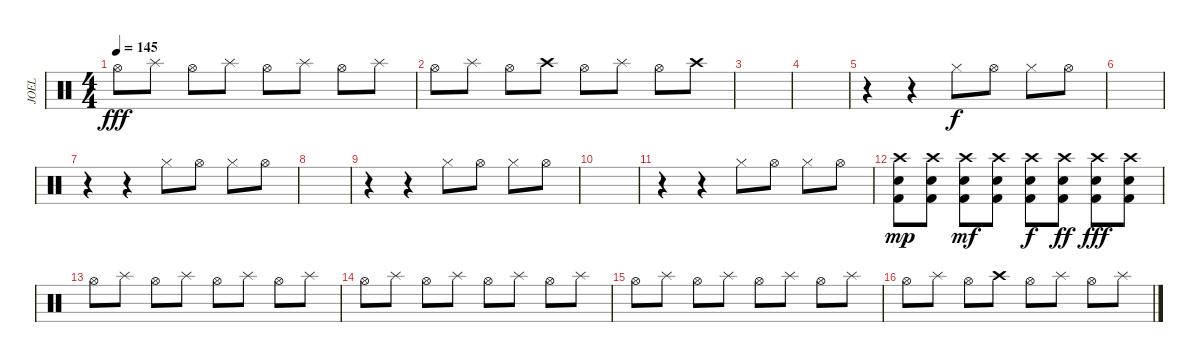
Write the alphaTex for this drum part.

\track ("JOEL" "JOEL") {instrument percussion}
\staff {score}
\articulation defaults
\ts (4 4)
\tempo 145
\clef neutral
\ks c "Hi-Hat (open)".8{dy fff} "Splash (hit)".8 "Hi-Hat (open)".8 "Splash (hit)".8 "Hi-Hat (open)".8 "Splash (hit)".8 "Hi-Hat (open)".8 "Splash (hit)".8
|
"Hi-Hat (open)".8 "Splash (hit)".8 "Hi-Hat (open)".8 "Crash high (hit)".8 "Hi-Hat (open)".8 "Splash (hit)".8 "Hi-Hat (open)".8 "Crash high (hit)".8 |
|
|
r.4 r.4 "Hi-Hat (closed)".8{dy f} "Hi-Hat (open)".8 "Hi-Hat (closed)".8 "Hi-Hat (open)".8 |
|
r.4 r.4 "Hi-Hat (closed)".8 "Hi-Hat (open)".8 "Hi-Hat (closed)".8 "Hi-Hat (open)".8 |
|
r.4 r.4 "Hi-Hat (closed)".8 "Hi-Hat (open)".8 "Hi-Hat (closed)".8 "Hi-Hat (open)".8 |
|
r.4 r.4 "Hi-Hat (closed)".8 "Hi-Hat (open)".8 "Hi-Hat (closed)".8 "Hi-Hat (open)".8 |
("Kick (hit) 2" "Electric Snare (hit)" "Crash high (hit)").8{dy mp} ("Kick (hit) 2" "Electric Snare (hit)" "Crash high (hit)").8 ("Kick (hit) 2" "Electric Snare (hit)" "Crash high (hit)").8{dy mf} ("Kick (hit) 2" "Electric Snare (hit)" "Crash high (hit)").8 ("Kick (hit) 2" "Electric Snare (hit)" "Crash high (hit)").8{dy f} ("Kick (hit) 2" "Electric Snare (hit)" "Crash high (hit)").8{dy ff} ("Kick (hit) 2" "Electric Snare (hit)" "Crash high (hit)").8{dy fff} ("Kick (hit) 2" "Electric Snare (hit)" "Crash high (hit)").8 |
"Hi-Hat (open)".8 "Splash (hit)".8 "Hi-Hat (open)".8 "Splash (hit)".8 "Hi-Hat (open)".8 "Splash (hit)".8 "Hi-Hat (open)".8 "Splash (hit)".8 |
"Hi-Hat (open)".8 "Splash (hit)".8 "Hi-Hat (open)".8 "Splash (hit)".8 "Hi-Hat (open)".8 "Splash (hit)".8 "Hi-Hat (open)".8 "Splash (hit)".8 |
"Hi-Hat (open)".8 "Splash (hit)".8 "Hi-Hat (open)".8 "Splash (hit)".8 "Hi-Hat (open)".8 "Splash (hit)".8 "Hi-Hat (open)".8 "Splash (hit)".8 |
"Hi-Hat (open)".8 "Splash (hit)".8 "Hi-Hat (open)".8 "Crash high (hit)".8 "Hi-Hat (open)".8 "Splash (hit)".8 "Hi-Hat (open)".8 "Splash (hit)".8
